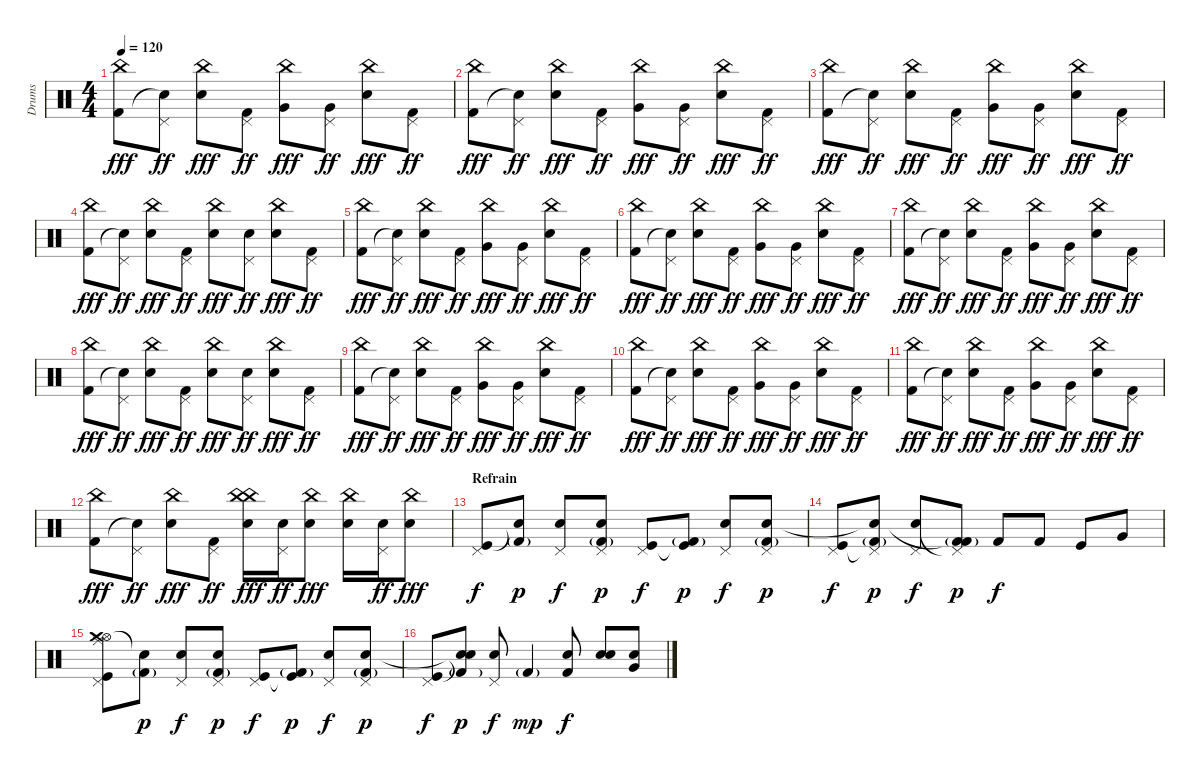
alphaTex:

\track ("Drums" "Drums") {instrument percussion}
\staff {score}
\articulation defaults
\ts (4 4)
\tempo 120
\clef neutral
\ks c
("China (hit)" "Kick (hit) 2").8{dy fff} ("Pedal Hi-Hat (hit)" "Snare (hit) 2"{t}).8{dy ff} ("China (hit)" "Snare (hit) 2").8{dy fff} ("Pedal Hi-Hat (hit)" "Kick (hit) 2").8{dy ff} ("China (hit)" "Very Low Tom (hit)").8{dy fff} ("Pedal Hi-Hat (hit)" "Very Low Tom (hit)").8{dy ff} ("China (hit)" "Snare (hit) 2").8{dy fff} ("Pedal Hi-Hat (hit)" "Kick (hit) 2").8{dy ff} |
("China (hit)" "Kick (hit) 2").8{dy fff} ("Pedal Hi-Hat (hit)" "Snare (hit) 2"{t}).8{dy ff} ("China (hit)" "Snare (hit) 2").8{dy fff} ("Pedal Hi-Hat (hit)" "Kick (hit) 2").8{dy ff} ("China (hit)" "Very Low Tom (hit)").8{dy fff} ("Pedal Hi-Hat (hit)" "Very Low Tom (hit)").8{dy ff} ("China (hit)" "Snare (hit) 2").8{dy fff} ("Pedal Hi-Hat (hit)" "Kick (hit) 2").8{dy ff} |
("China (hit)" "Kick (hit) 2").8{dy fff} ("Pedal Hi-Hat (hit)" "Snare (hit) 2"{t}).8{dy ff} ("China (hit)" "Snare (hit) 2").8{dy fff} ("Pedal Hi-Hat (hit)" "Kick (hit) 2").8{dy ff} ("China (hit)" "Very Low Tom (hit)").8{dy fff} ("Pedal Hi-Hat (hit)" "Very Low Tom (hit)").8{dy ff} ("China (hit)" "Snare (hit) 2").8{dy fff} ("Pedal Hi-Hat (hit)" "Kick (hit) 2").8{dy ff} |
("China (hit)" "Kick (hit) 2").8{dy fff} ("Pedal Hi-Hat (hit)" "Snare (hit) 2"{t}).8{dy ff} ("China (hit)" "Snare (hit) 2").8{dy fff} ("Pedal Hi-Hat (hit)" "Kick (hit) 2").8{dy ff} ("China (hit)" "Snare (hit) 2").8{dy fff} ("Pedal Hi-Hat (hit)" "Snare (hit) 2").8{dy ff} ("China (hit)" "Snare (hit) 2").8{dy fff} ("Pedal Hi-Hat (hit)" "Kick (hit) 2").8{dy ff} |
("China (hit)" "Kick (hit) 2").8{dy fff} ("Pedal Hi-Hat (hit)" "Snare (hit) 2"{t}).8{dy ff} ("China (hit)" "Snare (hit) 2").8{dy fff} ("Pedal Hi-Hat (hit)" "Kick (hit) 2").8{dy ff} ("China (hit)" "Very Low Tom (hit)").8{dy fff} ("Pedal Hi-Hat (hit)" "Very Low Tom (hit)").8{dy ff} ("China (hit)" "Snare (hit) 2").8{dy fff} ("Pedal Hi-Hat (hit)" "Kick (hit) 2").8{dy ff} |
("China (hit)" "Kick (hit) 2").8{dy fff} ("Pedal Hi-Hat (hit)" "Snare (hit) 2"{t}).8{dy ff} ("China (hit)" "Snare (hit) 2").8{dy fff} ("Pedal Hi-Hat (hit)" "Kick (hit) 2").8{dy ff} ("China (hit)" "Very Low Tom (hit)").8{dy fff} ("Pedal Hi-Hat (hit)" "Very Low Tom (hit)").8{dy ff} ("China (hit)" "Snare (hit) 2").8{dy fff} ("Pedal Hi-Hat (hit)" "Kick (hit) 2").8{dy ff} |
("China (hit)" "Kick (hit) 2").8{dy fff} ("Pedal Hi-Hat (hit)" "Snare (hit) 2"{t}).8{dy ff} ("China (hit)" "Snare (hit) 2").8{dy fff} ("Pedal Hi-Hat (hit)" "Kick (hit) 2").8{dy ff} ("China (hit)" "Very Low Tom (hit)").8{dy fff} ("Pedal Hi-Hat (hit)" "Very Low Tom (hit)").8{dy ff} ("China (hit)" "Snare (hit) 2").8{dy fff} ("Pedal Hi-Hat (hit)" "Kick (hit) 2").8{dy ff} |
("China (hit)" "Kick (hit) 2").8{dy fff} ("Pedal Hi-Hat (hit)" "Snare (hit) 2"{t}).8{dy ff} ("China (hit)" "Snare (hit) 2").8{dy fff} ("Pedal Hi-Hat (hit)" "Kick (hit) 2").8{dy ff} ("China (hit)" "Snare (hit) 2").8{dy fff} ("Pedal Hi-Hat (hit)" "Snare (hit) 2").8{dy ff} ("China (hit)" "Snare (hit) 2").8{dy fff} ("Pedal Hi-Hat (hit)" "Kick (hit) 2").8{dy ff} |
("China (hit)" "Kick (hit) 2").8{dy fff} ("Pedal Hi-Hat (hit)" "Snare (hit) 2"{t}).8{dy ff} ("China (hit)" "Snare (hit) 2").8{dy fff} ("Pedal Hi-Hat (hit)" "Kick (hit) 2").8{dy ff} ("China (hit)" "Very Low Tom (hit)").8{dy fff} ("Pedal Hi-Hat (hit)" "Very Low Tom (hit)").8{dy ff} ("China (hit)" "Snare (hit) 2").8{dy fff} ("Pedal Hi-Hat (hit)" "Kick (hit) 2").8{dy ff} |
("China (hit)" "Kick (hit) 2").8{dy fff} ("Pedal Hi-Hat (hit)" "Snare (hit) 2"{t}).8{dy ff} ("China (hit)" "Snare (hit) 2").8{dy fff} ("Pedal Hi-Hat (hit)" "Kick (hit) 2").8{dy ff} ("China (hit)" "Very Low Tom (hit)").8{dy fff} ("Pedal Hi-Hat (hit)" "Very Low Tom (hit)").8{dy ff} ("China (hit)" "Snare (hit) 2").8{dy fff} ("Pedal Hi-Hat (hit)" "Kick (hit) 2").8{dy ff} |
("China (hit)" "Kick (hit) 2").8{dy fff} ("Pedal Hi-Hat (hit)" "Snare (hit) 2"{t}).8{dy ff} ("China (hit)" "Snare (hit) 2").8{dy fff} ("Pedal Hi-Hat (hit)" "Kick (hit) 2").8{dy ff} ("China (hit)" "Very Low Tom (hit)").8{dy fff} ("Pedal Hi-Hat (hit)" "Very Low Tom (hit)").8{dy ff} ("China (hit)" "Snare (hit) 2").8{dy fff} ("Pedal Hi-Hat (hit)" "Kick (hit) 2").8{dy ff} |
("China (hit)" "Kick (hit) 2").8{dy fff} ("Pedal Hi-Hat (hit)" "Snare (hit) 2"{t}).8{dy ff} ("China (hit)" "Snare (hit) 2").8{dy fff} ("Pedal Hi-Hat (hit)" "Kick (hit) 2").8{dy ff} ("China (hit)" "China (hit)" "Snare (hit) 2").16{dy fff} ("Pedal Hi-Hat (hit)" "Snare (hit) 2").16{dy ff} ("China (hit)" "Snare (hit) 2").8{dy fff} ("China (hit)" "Snare (hit) 2").16 ("Pedal Hi-Hat (hit)" "Snare (hit) 2").16{dy ff} ("China (hit)" "Snare (hit) 2").8{dy fff} |
\section ("" "Refrain")
("Pedal Hi-Hat (hit)" "Kick (hit)").8{dy f} ("Kick (hit) 2"{g} "Snare (hit) 2"{t}).8{dy p} ("Pedal Hi-Hat (hit)" "Snare (hit) 2").8{dy f} ("Kick (hit) 2"{g} "Pedal Hi-Hat (hit)" "Snare (hit) 2").8{dy p} ("Pedal Hi-Hat (hit)" "Kick (hit)").8{dy f} ("Kick (hit) 2"{g} "Kick (hit)"{t}).8{dy p} ("Pedal Hi-Hat (hit)" "Snare (hit) 2").8{dy f} ("Kick (hit) 2"{g} "Pedal Hi-Hat (hit)" "Snare (hit) 2").8{dy p} |
("Pedal Hi-Hat (hit)" "Kick (hit)").8{dy f} ("Kick (hit) 2"{g} "Pedal Hi-Hat (hit)"{t} "Snare (hit) 2"{t}).8{dy p} ("Pedal Hi-Hat (hit)" "Snare (hit) 2").8{dy f} ("Kick (hit) 2"{g} "Pedal Hi-Hat (hit)"{t} "Kick (hit) 2"{t}).8{dy p} "Kick (hit) 2".8{dy f} "Kick (hit) 2".8 "Kick (hit)".8 "Very Low Tom (hit)".8 |
("Ride (middle)" "Hi-Hat (open)" "Crash medium (hit)" "Pedal Hi-Hat (hit)" "Kick (hit)").8 ("Kick (hit) 2"{g} "Snare (hit) 2"{t}).8{dy p} ("Pedal Hi-Hat (hit)" "Snare (hit) 2").8{dy f} ("Kick (hit) 2"{g} "Pedal Hi-Hat (hit)" "Snare (hit) 2").8{dy p} ("Pedal Hi-Hat (hit)" "Kick (hit)").8{dy f} ("Kick (hit) 2"{g} "Kick (hit)"{t}).8{dy p} ("Pedal Hi-Hat (hit)" "Snare (hit) 2").8{dy f} ("Kick (hit) 2"{g} "Pedal Hi-Hat (hit)" "Snare (hit) 2").8{dy p} |
("Pedal Hi-Hat (hit)" "Kick (hit)").8{dy f} ("Kick (hit) 2"{g} "Snare (hit)"{t} "Snare (hit)"{t}).8{dy p} ("Pedal Hi-Hat (hit)" "Snare (hit) 2").8{dy f} "Kick (hit) 2"{g}.4{dy mp} ("Kick (hit) 2" "Snare (hit) 2").8{dy f} ("Electric Snare (hit)" "Snare (hit) 2").8 ("Very Low Tom (hit)" "Snare (hit) 2").8
